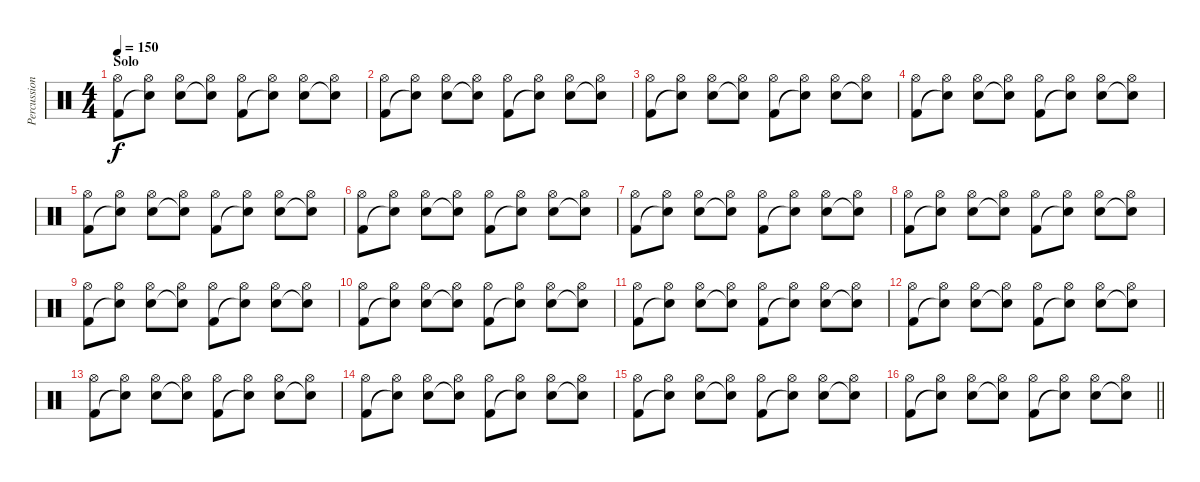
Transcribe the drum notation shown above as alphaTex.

\track ("Percussion" "Percussion") {instrument percussion}
\staff {score}
\articulation defaults
\ts (4 4)
\section ("" "Solo")
\tempo 150
\clef neutral
\ks c
("Hi-Hat (open)" "Kick (hit) 2").8{dy f} ("Hi-Hat (open)" "Snare (hit)"{t}).8 ("Hi-Hat (open)" "Snare (hit) 2").8 ("Hi-Hat (open)" "Snare (hit)"{t}).8 ("Hi-Hat (open)" "Kick (hit) 2").8 ("Hi-Hat (open)" "Snare (hit)"{t}).8 ("Hi-Hat (open)" "Snare (hit) 2").8 ("Hi-Hat (open)" "Snare (hit)"{t}).8 |
("Hi-Hat (open)" "Kick (hit) 2").8 ("Hi-Hat (open)" "Snare (hit)"{t}).8 ("Hi-Hat (open)" "Snare (hit) 2").8 ("Hi-Hat (open)" "Snare (hit)"{t}).8 ("Hi-Hat (open)" "Kick (hit) 2").8 ("Hi-Hat (open)" "Snare (hit)"{t}).8 ("Hi-Hat (open)" "Snare (hit) 2").8 ("Hi-Hat (open)" "Snare (hit)"{t}).8 |
("Hi-Hat (open)" "Kick (hit) 2").8 ("Hi-Hat (open)" "Snare (hit)"{t}).8 ("Hi-Hat (open)" "Snare (hit) 2").8 ("Hi-Hat (open)" "Snare (hit)"{t}).8 ("Hi-Hat (open)" "Kick (hit) 2").8 ("Hi-Hat (open)" "Snare (hit)"{t}).8 ("Hi-Hat (open)" "Snare (hit) 2").8 ("Hi-Hat (open)" "Snare (hit)"{t}).8 |
("Hi-Hat (open)" "Kick (hit) 2").8 ("Hi-Hat (open)" "Snare (hit)"{t}).8 ("Hi-Hat (open)" "Snare (hit) 2").8 ("Hi-Hat (open)" "Snare (hit)"{t}).8 ("Hi-Hat (open)" "Kick (hit) 2").8 ("Hi-Hat (open)" "Snare (hit)"{t}).8 ("Hi-Hat (open)" "Snare (hit) 2").8 ("Hi-Hat (open)" "Snare (hit)"{t}).8 |
("Hi-Hat (open)" "Kick (hit) 2").8 ("Hi-Hat (open)" "Snare (hit)"{t}).8 ("Hi-Hat (open)" "Snare (hit) 2").8 ("Hi-Hat (open)" "Snare (hit)"{t}).8 ("Hi-Hat (open)" "Kick (hit) 2").8 ("Hi-Hat (open)" "Snare (hit)"{t}).8 ("Hi-Hat (open)" "Snare (hit) 2").8 ("Hi-Hat (open)" "Snare (hit)"{t}).8 |
("Hi-Hat (open)" "Kick (hit) 2").8 ("Hi-Hat (open)" "Snare (hit)"{t}).8 ("Hi-Hat (open)" "Snare (hit) 2").8 ("Hi-Hat (open)" "Snare (hit)"{t}).8 ("Hi-Hat (open)" "Kick (hit) 2").8 ("Hi-Hat (open)" "Snare (hit)"{t}).8 ("Hi-Hat (open)" "Snare (hit) 2").8 ("Hi-Hat (open)" "Snare (hit)"{t}).8 |
("Hi-Hat (open)" "Kick (hit) 2").8 ("Hi-Hat (open)" "Snare (hit)"{t}).8 ("Hi-Hat (open)" "Snare (hit) 2").8 ("Hi-Hat (open)" "Snare (hit)"{t}).8 ("Hi-Hat (open)" "Kick (hit) 2").8 ("Hi-Hat (open)" "Snare (hit)"{t}).8 ("Hi-Hat (open)" "Snare (hit) 2").8 ("Hi-Hat (open)" "Snare (hit)"{t}).8 |
("Hi-Hat (open)" "Kick (hit) 2").8 ("Hi-Hat (open)" "Snare (hit)"{t}).8 ("Hi-Hat (open)" "Snare (hit) 2").8 ("Hi-Hat (open)" "Snare (hit)"{t}).8 ("Hi-Hat (open)" "Kick (hit) 2").8 ("Hi-Hat (open)" "Snare (hit)"{t}).8 ("Hi-Hat (open)" "Snare (hit) 2").8 ("Hi-Hat (open)" "Snare (hit)"{t}).8 |
("Hi-Hat (open)" "Kick (hit) 2").8 ("Hi-Hat (open)" "Snare (hit)"{t}).8 ("Hi-Hat (open)" "Snare (hit) 2").8 ("Hi-Hat (open)" "Snare (hit)"{t}).8 ("Hi-Hat (open)" "Kick (hit) 2").8 ("Hi-Hat (open)" "Snare (hit)"{t}).8 ("Hi-Hat (open)" "Snare (hit) 2").8 ("Hi-Hat (open)" "Snare (hit)"{t}).8 |
("Hi-Hat (open)" "Kick (hit) 2").8 ("Hi-Hat (open)" "Snare (hit)"{t}).8 ("Hi-Hat (open)" "Snare (hit) 2").8 ("Hi-Hat (open)" "Snare (hit)"{t}).8 ("Hi-Hat (open)" "Kick (hit) 2").8 ("Hi-Hat (open)" "Snare (hit)"{t}).8 ("Hi-Hat (open)" "Snare (hit) 2").8 ("Hi-Hat (open)" "Snare (hit)"{t}).8 |
("Hi-Hat (open)" "Kick (hit) 2").8 ("Hi-Hat (open)" "Snare (hit)"{t}).8 ("Hi-Hat (open)" "Snare (hit) 2").8 ("Hi-Hat (open)" "Snare (hit)"{t}).8 ("Hi-Hat (open)" "Kick (hit) 2").8 ("Hi-Hat (open)" "Snare (hit)"{t}).8 ("Hi-Hat (open)" "Snare (hit) 2").8 ("Hi-Hat (open)" "Snare (hit)"{t}).8 |
("Hi-Hat (open)" "Kick (hit) 2").8 ("Hi-Hat (open)" "Snare (hit)"{t}).8 ("Hi-Hat (open)" "Snare (hit) 2").8 ("Hi-Hat (open)" "Snare (hit)"{t}).8 ("Hi-Hat (open)" "Kick (hit) 2").8 ("Hi-Hat (open)" "Snare (hit)"{t}).8 ("Hi-Hat (open)" "Snare (hit) 2").8 ("Hi-Hat (open)" "Snare (hit)"{t}).8 |
("Hi-Hat (open)" "Kick (hit) 2").8 ("Hi-Hat (open)" "Snare (hit)"{t}).8 ("Hi-Hat (open)" "Snare (hit) 2").8 ("Hi-Hat (open)" "Snare (hit)"{t}).8 ("Hi-Hat (open)" "Kick (hit) 2").8 ("Hi-Hat (open)" "Snare (hit)"{t}).8 ("Hi-Hat (open)" "Snare (hit) 2").8 ("Hi-Hat (open)" "Snare (hit)"{t}).8 |
("Hi-Hat (open)" "Kick (hit) 2").8 ("Hi-Hat (open)" "Snare (hit)"{t}).8 ("Hi-Hat (open)" "Snare (hit) 2").8 ("Hi-Hat (open)" "Snare (hit)"{t}).8 ("Hi-Hat (open)" "Kick (hit) 2").8 ("Hi-Hat (open)" "Snare (hit)"{t}).8 ("Hi-Hat (open)" "Snare (hit) 2").8 ("Hi-Hat (open)" "Snare (hit)"{t}).8 |
("Hi-Hat (open)" "Kick (hit) 2").8 ("Hi-Hat (open)" "Snare (hit)"{t}).8 ("Hi-Hat (open)" "Snare (hit) 2").8 ("Hi-Hat (open)" "Snare (hit)"{t}).8 ("Hi-Hat (open)" "Kick (hit) 2").8 ("Hi-Hat (open)" "Snare (hit)"{t}).8 ("Hi-Hat (open)" "Snare (hit) 2").8 ("Hi-Hat (open)" "Snare (hit)"{t}).8 |
\barLineRight lightlight
("Hi-Hat (open)" "Kick (hit) 2").8 ("Hi-Hat (open)" "Snare (hit)"{t}).8 ("Hi-Hat (open)" "Snare (hit) 2").8 ("Hi-Hat (open)" "Snare (hit)"{t}).8 ("Hi-Hat (open)" "Kick (hit) 2").8 ("Hi-Hat (open)" "Snare (hit)"{t}).8 ("Hi-Hat (open)" "Snare (hit) 2").8 ("Hi-Hat (open)" "Snare (hit)"{t}).8
